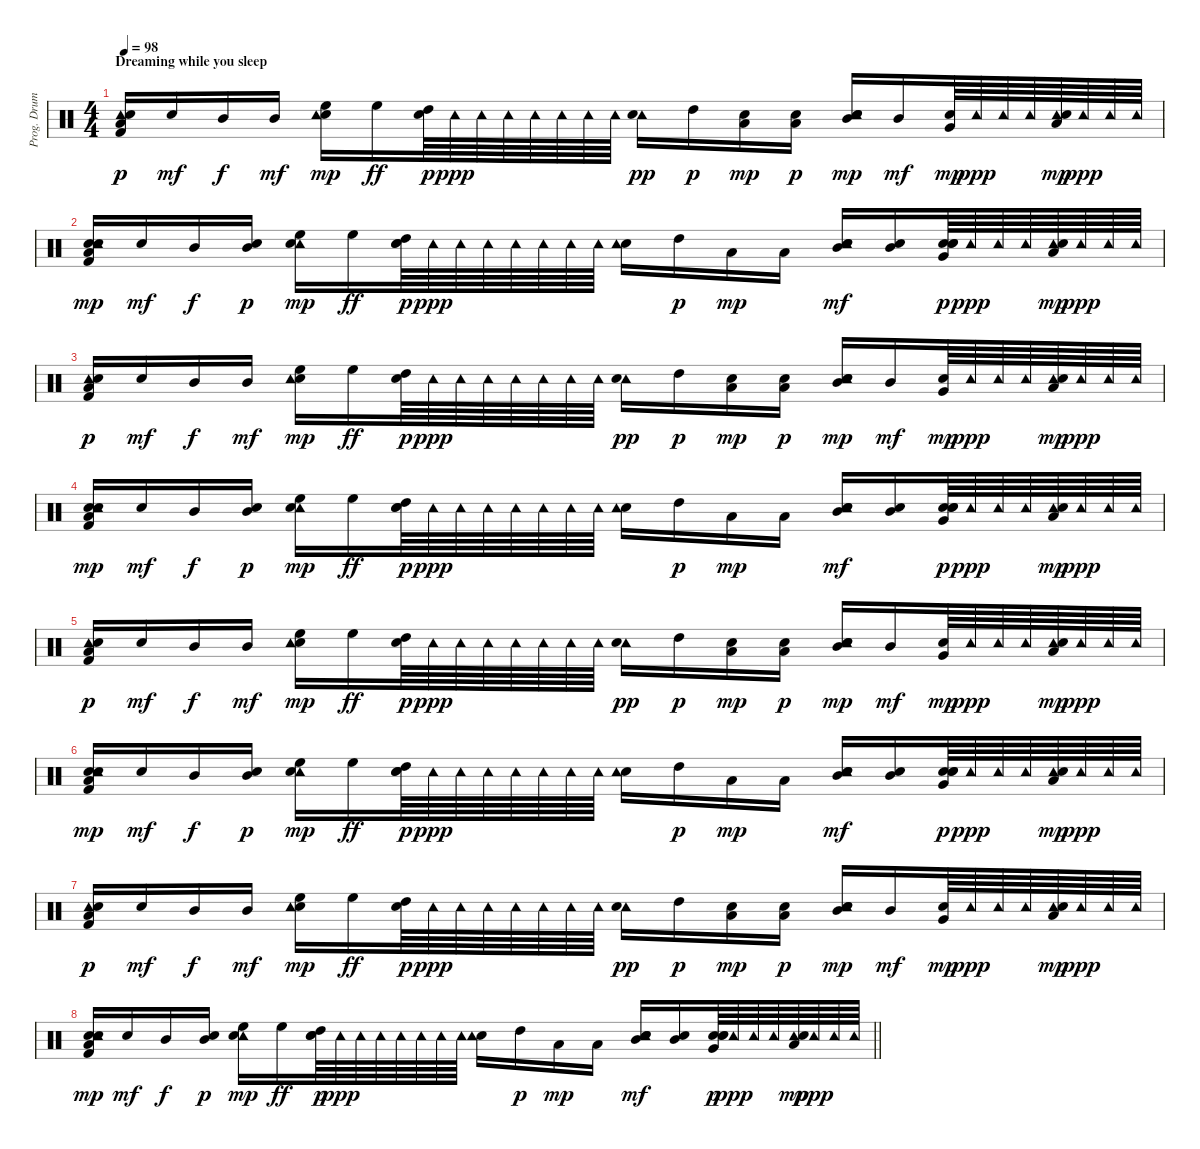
\track ("Prog. Drums" "Prog. Drum") {instrument percussion}
\staff {score}
\articulation defaults
\ts (4 4)
\section ("" "Dreaming while you sleep")
\tempo 98
\clef neutral
\ks c
("Tambourine (hit)" "Snare (hit)" "Low Floor Tom (hit)" "Kick (hit) 2").16{dy p} "Snare (hit)".16{dy mf} "Mid Tom (hit)".16{dy f} "Mid Tom (hit)".16{dy mf} ("Snare (hit) 2" "High Floor Tom (hit)" "Tambourine (hit)").16{dy mp} "High Floor Tom (hit)".16{dy ff} ("High Tom (hit)" "Snare (hit)").64{dy p} "Tambourine (hit)".64{dy ppp} "Tambourine (hit)".64 "Tambourine (hit)".64 "Tambourine (hit)".64 "Tambourine (hit)".64 "Tambourine (hit)".64 "Tambourine (hit)".64 ("Tambourine (hit)" "Snare (hit) 2").16{dy pp} "High Tom (hit)".16{dy p} ("Snare (hit)" "Low Tom (hit)").16{dy mp} ("Low Tom (hit)" "Snare (hit)").16{dy p} ("Snare (hit) 2" "Mid Tom (hit)" "Snare (hit)" "Tambourine (hit)").16{dy mp} "Mid Tom (hit)".16{dy mf} ("Snare (hit)" "Very Low Tom (hit)").64{dy mp} "Tambourine (hit)".64{dy ppp} "Tambourine (hit)".64 "Tambourine (hit)".64 ("Tambourine (hit)" "Snare (hit) 2" "Low Tom (hit)").64{dy mp} "Tambourine (hit)".64{dy ppp} "Tambourine (hit)".64 "Tambourine (hit)".64 |
("Snare (hit)" "Snare (hit)" "Tambourine (hit)" "Kick (hit) 2" "Low Floor Tom (hit)").16{dy mp} "Snare (hit)".16{dy mf} "Mid Tom (hit)".16{dy f} ("Mid Tom (hit)" "Snare (hit)").16{dy p} ("Tambourine (hit)" "High Floor Tom (hit)" "Snare (hit) 2").16{dy mp} "High Floor Tom (hit)".16{dy ff} ("High Tom (hit)" "Snare (hit)" "Snare (hit)").64{dy p} "Tambourine (hit)".64{dy ppp} "Tambourine (hit)".64 "Tambourine (hit)".64 "Tambourine (hit)".64 "Tambourine (hit)".64 "Tambourine (hit)".64 "Tambourine (hit)".64 ("Snare (hit) 2" "Tambourine (hit)").16 "High Tom (hit)".16{dy p} "Low Tom (hit)".16{dy mp} "Low Tom (hit)".16 ("Tambourine (hit)" "Snare (hit)" "Snare (hit) 2" "Mid Tom (hit)").16{dy mf} ("Snare (hit) 2" "Mid Tom (hit)").16 ("Snare (hit) 2" "Very Low Tom (hit)" "Snare (hit)" "Snare (hit)").64{dy p} "Tambourine (hit)".64{dy ppp} "Tambourine (hit)".64 "Tambourine (hit)".64 ("Tambourine (hit)" "Snare (hit) 2" "Low Tom (hit)").64{dy mp} "Tambourine (hit)".64{dy ppp} "Tambourine (hit)".64 "Tambourine (hit)".64 |
("Tambourine (hit)" "Snare (hit)" "Low Floor Tom (hit)" "Kick (hit) 2").16{dy p} "Snare (hit)".16{dy mf} "Mid Tom (hit)".16{dy f} "Mid Tom (hit)".16{dy mf} ("Snare (hit) 2" "High Floor Tom (hit)" "Tambourine (hit)").16{dy mp} "High Floor Tom (hit)".16{dy ff} ("High Tom (hit)" "Snare (hit)").64{dy p} "Tambourine (hit)".64{dy ppp} "Tambourine (hit)".64 "Tambourine (hit)".64 "Tambourine (hit)".64 "Tambourine (hit)".64 "Tambourine (hit)".64 "Tambourine (hit)".64 ("Tambourine (hit)" "Snare (hit) 2").16{dy pp} "High Tom (hit)".16{dy p} ("Snare (hit)" "Low Tom (hit)").16{dy mp} ("Low Tom (hit)" "Snare (hit)").16{dy p} ("Snare (hit) 2" "Mid Tom (hit)" "Snare (hit)" "Tambourine (hit)").16{dy mp} "Mid Tom (hit)".16{dy mf} ("Snare (hit)" "Very Low Tom (hit)").64{dy mp} "Tambourine (hit)".64{dy ppp} "Tambourine (hit)".64 "Tambourine (hit)".64 ("Tambourine (hit)" "Snare (hit) 2" "Low Tom (hit)").64{dy mp} "Tambourine (hit)".64{dy ppp} "Tambourine (hit)".64 "Tambourine (hit)".64 |
("Snare (hit)" "Snare (hit)" "Tambourine (hit)" "Kick (hit) 2" "Low Floor Tom (hit)").16{dy mp} "Snare (hit)".16{dy mf} "Mid Tom (hit)".16{dy f} ("Mid Tom (hit)" "Snare (hit)").16{dy p} ("Tambourine (hit)" "High Floor Tom (hit)" "Snare (hit) 2").16{dy mp} "High Floor Tom (hit)".16{dy ff} ("High Tom (hit)" "Snare (hit)" "Snare (hit)").64{dy p} "Tambourine (hit)".64{dy ppp} "Tambourine (hit)".64 "Tambourine (hit)".64 "Tambourine (hit)".64 "Tambourine (hit)".64 "Tambourine (hit)".64 "Tambourine (hit)".64 ("Snare (hit) 2" "Tambourine (hit)").16 "High Tom (hit)".16{dy p} "Low Tom (hit)".16{dy mp} "Low Tom (hit)".16 ("Tambourine (hit)" "Snare (hit)" "Snare (hit) 2" "Mid Tom (hit)").16{dy mf} ("Snare (hit) 2" "Mid Tom (hit)").16 ("Snare (hit) 2" "Very Low Tom (hit)" "Snare (hit)" "Snare (hit)").64{dy p} "Tambourine (hit)".64{dy ppp} "Tambourine (hit)".64 "Tambourine (hit)".64 ("Tambourine (hit)" "Snare (hit) 2" "Low Tom (hit)").64{dy mp} "Tambourine (hit)".64{dy ppp} "Tambourine (hit)".64 "Tambourine (hit)".64 |
("Tambourine (hit)" "Snare (hit)" "Low Floor Tom (hit)" "Kick (hit) 2").16{dy p} "Snare (hit)".16{dy mf} "Mid Tom (hit)".16{dy f} "Mid Tom (hit)".16{dy mf} ("Snare (hit) 2" "High Floor Tom (hit)" "Tambourine (hit)").16{dy mp} "High Floor Tom (hit)".16{dy ff} ("High Tom (hit)" "Snare (hit)").64{dy p} "Tambourine (hit)".64{dy ppp} "Tambourine (hit)".64 "Tambourine (hit)".64 "Tambourine (hit)".64 "Tambourine (hit)".64 "Tambourine (hit)".64 "Tambourine (hit)".64 ("Tambourine (hit)" "Snare (hit) 2").16{dy pp} "High Tom (hit)".16{dy p} ("Snare (hit)" "Low Tom (hit)").16{dy mp} ("Low Tom (hit)" "Snare (hit)").16{dy p} ("Snare (hit) 2" "Mid Tom (hit)" "Snare (hit)" "Tambourine (hit)").16{dy mp} "Mid Tom (hit)".16{dy mf} ("Snare (hit)" "Very Low Tom (hit)").64{dy mp} "Tambourine (hit)".64{dy ppp} "Tambourine (hit)".64 "Tambourine (hit)".64 ("Tambourine (hit)" "Snare (hit) 2" "Low Tom (hit)").64{dy mp} "Tambourine (hit)".64{dy ppp} "Tambourine (hit)".64 "Tambourine (hit)".64 |
("Snare (hit)" "Snare (hit)" "Tambourine (hit)" "Kick (hit) 2" "Low Floor Tom (hit)").16{dy mp} "Snare (hit)".16{dy mf} "Mid Tom (hit)".16{dy f} ("Mid Tom (hit)" "Snare (hit)").16{dy p} ("Tambourine (hit)" "High Floor Tom (hit)" "Snare (hit) 2").16{dy mp} "High Floor Tom (hit)".16{dy ff} ("High Tom (hit)" "Snare (hit)" "Snare (hit)").64{dy p} "Tambourine (hit)".64{dy ppp} "Tambourine (hit)".64 "Tambourine (hit)".64 "Tambourine (hit)".64 "Tambourine (hit)".64 "Tambourine (hit)".64 "Tambourine (hit)".64 ("Snare (hit) 2" "Tambourine (hit)").16 "High Tom (hit)".16{dy p} "Low Tom (hit)".16{dy mp} "Low Tom (hit)".16 ("Tambourine (hit)" "Snare (hit)" "Snare (hit) 2" "Mid Tom (hit)").16{dy mf} ("Snare (hit) 2" "Mid Tom (hit)").16 ("Snare (hit) 2" "Very Low Tom (hit)" "Snare (hit)" "Snare (hit)").64{dy p} "Tambourine (hit)".64{dy ppp} "Tambourine (hit)".64 "Tambourine (hit)".64 ("Tambourine (hit)" "Snare (hit) 2" "Low Tom (hit)").64{dy mp} "Tambourine (hit)".64{dy ppp} "Tambourine (hit)".64 "Tambourine (hit)".64 |
("Tambourine (hit)" "Snare (hit)" "Low Floor Tom (hit)" "Kick (hit) 2").16{dy p} "Snare (hit)".16{dy mf} "Mid Tom (hit)".16{dy f} "Mid Tom (hit)".16{dy mf} ("Snare (hit) 2" "High Floor Tom (hit)" "Tambourine (hit)").16{dy mp} "High Floor Tom (hit)".16{dy ff} ("High Tom (hit)" "Snare (hit)").64{dy p} "Tambourine (hit)".64{dy ppp} "Tambourine (hit)".64 "Tambourine (hit)".64 "Tambourine (hit)".64 "Tambourine (hit)".64 "Tambourine (hit)".64 "Tambourine (hit)".64 ("Tambourine (hit)" "Snare (hit) 2").16{dy pp} "High Tom (hit)".16{dy p} ("Snare (hit)" "Low Tom (hit)").16{dy mp} ("Low Tom (hit)" "Snare (hit)").16{dy p} ("Snare (hit) 2" "Mid Tom (hit)" "Snare (hit)" "Tambourine (hit)").16{dy mp} "Mid Tom (hit)".16{dy mf} ("Snare (hit)" "Very Low Tom (hit)").64{dy mp} "Tambourine (hit)".64{dy ppp} "Tambourine (hit)".64 "Tambourine (hit)".64 ("Tambourine (hit)" "Snare (hit) 2" "Low Tom (hit)").64{dy mp} "Tambourine (hit)".64{dy ppp} "Tambourine (hit)".64 "Tambourine (hit)".64 |
\barLineRight lightlight
("Snare (hit)" "Snare (hit)" "Tambourine (hit)" "Kick (hit) 2" "Low Floor Tom (hit)").16{dy mp} "Snare (hit)".16{dy mf} "Mid Tom (hit)".16{dy f} ("Mid Tom (hit)" "Snare (hit)").16{dy p} ("Tambourine (hit)" "High Floor Tom (hit)" "Snare (hit) 2").16{dy mp} "High Floor Tom (hit)".16{dy ff} ("High Tom (hit)" "Snare (hit)" "Snare (hit)").64{dy p} "Tambourine (hit)".64{dy ppp} "Tambourine (hit)".64 "Tambourine (hit)".64 "Tambourine (hit)".64 "Tambourine (hit)".64 "Tambourine (hit)".64 "Tambourine (hit)".64 ("Snare (hit) 2" "Tambourine (hit)").16 "High Tom (hit)".16{dy p} "Low Tom (hit)".16{dy mp} "Low Tom (hit)".16 ("Tambourine (hit)" "Snare (hit)" "Snare (hit) 2" "Mid Tom (hit)").16{dy mf} ("Snare (hit) 2" "Mid Tom (hit)").16 ("Snare (hit) 2" "Very Low Tom (hit)" "Snare (hit)" "Snare (hit)").64{dy p} "Tambourine (hit)".64{dy ppp} "Tambourine (hit)".64 "Tambourine (hit)".64 ("Tambourine (hit)" "Snare (hit) 2" "Low Tom (hit)").64{dy mp} "Tambourine (hit)".64{dy ppp} "Tambourine (hit)".64 "Tambourine (hit)".64
